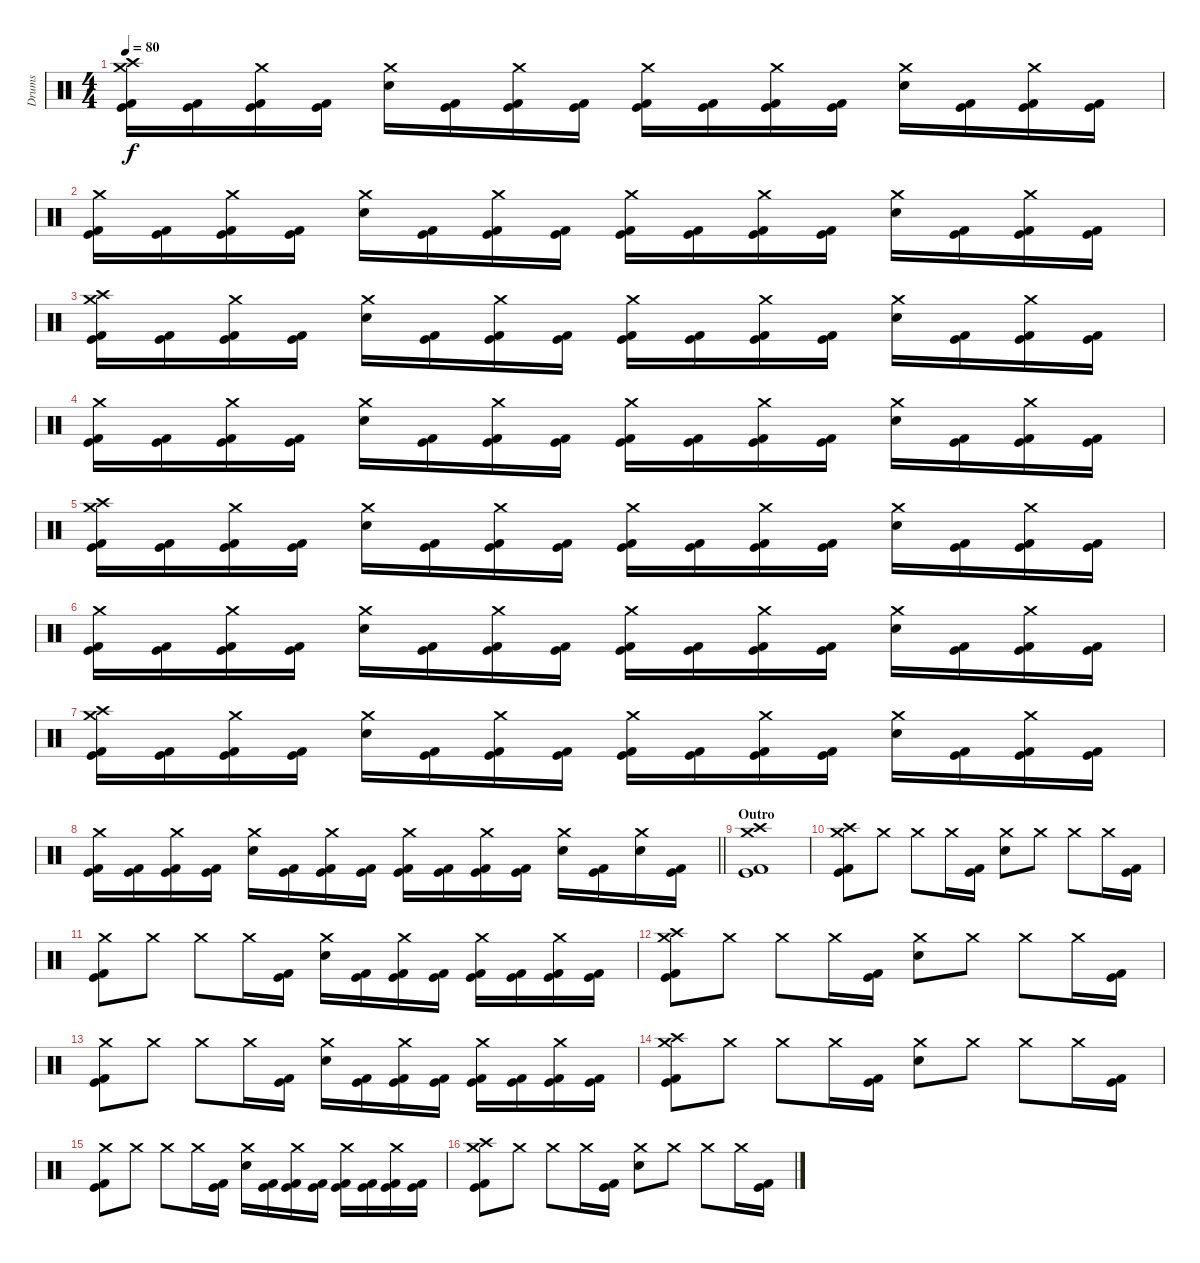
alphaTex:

\track ("Drums" "Drums") {instrument percussion}
\staff {score}
\articulation defaults
\ts (4 4)
\tempo 80
\clef neutral
\ks c
("Crash medium (hit)" "Crash high (hit)" "Kick (hit) 2" "Kick (hit)").16{dy f} ("Kick (hit) 2" "Kick (hit)").16 ("Crash medium (hit)" "Kick (hit) 2" "Kick (hit)").16 ("Kick (hit) 2" "Kick (hit)").16 ("Crash medium (hit)" "Electric Snare (hit)").16 ("Kick (hit) 2" "Kick (hit)").16 ("Crash medium (hit)" "Kick (hit) 2" "Kick (hit)").16 ("Kick (hit) 2" "Kick (hit)").16 ("Crash medium (hit)" "Kick (hit) 2" "Kick (hit)").16 ("Kick (hit) 2" "Kick (hit)").16 ("Crash medium (hit)" "Kick (hit) 2" "Kick (hit)").16 ("Kick (hit) 2" "Kick (hit)").16 ("Crash medium (hit)" "Electric Snare (hit)").16 ("Kick (hit) 2" "Kick (hit)").16 ("Crash medium (hit)" "Kick (hit) 2" "Kick (hit)").16 ("Kick (hit) 2" "Kick (hit)").16 |
("Crash medium (hit)" "Kick (hit) 2" "Kick (hit)").16 ("Kick (hit) 2" "Kick (hit)").16 ("Crash medium (hit)" "Kick (hit) 2" "Kick (hit)").16 ("Kick (hit) 2" "Kick (hit)").16 ("Crash medium (hit)" "Electric Snare (hit)").16 ("Kick (hit) 2" "Kick (hit)").16 ("Crash medium (hit)" "Kick (hit) 2" "Kick (hit)").16 ("Kick (hit) 2" "Kick (hit)").16 ("Crash medium (hit)" "Kick (hit) 2" "Kick (hit)").16 ("Kick (hit) 2" "Kick (hit)").16 ("Crash medium (hit)" "Kick (hit) 2" "Kick (hit)").16 ("Kick (hit) 2" "Kick (hit)").16 ("Crash medium (hit)" "Electric Snare (hit)").16 ("Kick (hit) 2" "Kick (hit)").16 ("Crash medium (hit)" "Kick (hit) 2" "Kick (hit)").16 ("Kick (hit) 2" "Kick (hit)").16 |
("Crash medium (hit)" "Crash high (hit)" "Kick (hit) 2" "Kick (hit)").16 ("Kick (hit) 2" "Kick (hit)").16 ("Crash medium (hit)" "Kick (hit) 2" "Kick (hit)").16 ("Kick (hit) 2" "Kick (hit)").16 ("Crash medium (hit)" "Electric Snare (hit)").16 ("Kick (hit) 2" "Kick (hit)").16 ("Crash medium (hit)" "Kick (hit) 2" "Kick (hit)").16 ("Kick (hit) 2" "Kick (hit)").16 ("Crash medium (hit)" "Kick (hit) 2" "Kick (hit)").16 ("Kick (hit) 2" "Kick (hit)").16 ("Crash medium (hit)" "Kick (hit) 2" "Kick (hit)").16 ("Kick (hit) 2" "Kick (hit)").16 ("Crash medium (hit)" "Electric Snare (hit)").16 ("Kick (hit) 2" "Kick (hit)").16 ("Crash medium (hit)" "Kick (hit) 2" "Kick (hit)").16 ("Kick (hit) 2" "Kick (hit)").16 |
("Crash medium (hit)" "Kick (hit) 2" "Kick (hit)").16 ("Kick (hit) 2" "Kick (hit)").16 ("Crash medium (hit)" "Kick (hit) 2" "Kick (hit)").16 ("Kick (hit) 2" "Kick (hit)").16 ("Crash medium (hit)" "Electric Snare (hit)").16 ("Kick (hit) 2" "Kick (hit)").16 ("Crash medium (hit)" "Kick (hit) 2" "Kick (hit)").16 ("Kick (hit) 2" "Kick (hit)").16 ("Crash medium (hit)" "Kick (hit) 2" "Kick (hit)").16 ("Kick (hit) 2" "Kick (hit)").16 ("Crash medium (hit)" "Kick (hit) 2" "Kick (hit)").16 ("Kick (hit) 2" "Kick (hit)").16 ("Crash medium (hit)" "Electric Snare (hit)").16 ("Kick (hit) 2" "Kick (hit)").16 ("Crash medium (hit)" "Kick (hit) 2" "Kick (hit)").16 ("Kick (hit) 2" "Kick (hit)").16 |
("Crash medium (hit)" "Crash high (hit)" "Kick (hit) 2" "Kick (hit)").16 ("Kick (hit) 2" "Kick (hit)").16 ("Crash medium (hit)" "Kick (hit) 2" "Kick (hit)").16 ("Kick (hit) 2" "Kick (hit)").16 ("Crash medium (hit)" "Electric Snare (hit)").16 ("Kick (hit) 2" "Kick (hit)").16 ("Crash medium (hit)" "Kick (hit) 2" "Kick (hit)").16 ("Kick (hit) 2" "Kick (hit)").16 ("Crash medium (hit)" "Kick (hit) 2" "Kick (hit)").16 ("Kick (hit) 2" "Kick (hit)").16 ("Crash medium (hit)" "Kick (hit) 2" "Kick (hit)").16 ("Kick (hit) 2" "Kick (hit)").16 ("Crash medium (hit)" "Electric Snare (hit)").16 ("Kick (hit) 2" "Kick (hit)").16 ("Crash medium (hit)" "Kick (hit) 2" "Kick (hit)").16 ("Kick (hit) 2" "Kick (hit)").16 |
("Crash medium (hit)" "Kick (hit) 2" "Kick (hit)").16 ("Kick (hit) 2" "Kick (hit)").16 ("Crash medium (hit)" "Kick (hit) 2" "Kick (hit)").16 ("Kick (hit) 2" "Kick (hit)").16 ("Crash medium (hit)" "Electric Snare (hit)").16 ("Kick (hit) 2" "Kick (hit)").16 ("Crash medium (hit)" "Kick (hit) 2" "Kick (hit)").16 ("Kick (hit) 2" "Kick (hit)").16 ("Crash medium (hit)" "Kick (hit) 2" "Kick (hit)").16 ("Kick (hit) 2" "Kick (hit)").16 ("Crash medium (hit)" "Kick (hit) 2" "Kick (hit)").16 ("Kick (hit) 2" "Kick (hit)").16 ("Crash medium (hit)" "Electric Snare (hit)").16 ("Kick (hit) 2" "Kick (hit)").16 ("Crash medium (hit)" "Kick (hit) 2" "Kick (hit)").16 ("Kick (hit) 2" "Kick (hit)").16 |
("Crash medium (hit)" "Crash high (hit)" "Kick (hit) 2" "Kick (hit)").16 ("Kick (hit) 2" "Kick (hit)").16 ("Crash medium (hit)" "Kick (hit) 2" "Kick (hit)").16 ("Kick (hit) 2" "Kick (hit)").16 ("Crash medium (hit)" "Electric Snare (hit)").16 ("Kick (hit) 2" "Kick (hit)").16 ("Crash medium (hit)" "Kick (hit) 2" "Kick (hit)").16 ("Kick (hit) 2" "Kick (hit)").16 ("Crash medium (hit)" "Kick (hit) 2" "Kick (hit)").16 ("Kick (hit) 2" "Kick (hit)").16 ("Crash medium (hit)" "Kick (hit) 2" "Kick (hit)").16 ("Kick (hit) 2" "Kick (hit)").16 ("Crash medium (hit)" "Electric Snare (hit)").16 ("Kick (hit) 2" "Kick (hit)").16 ("Crash medium (hit)" "Kick (hit) 2" "Kick (hit)").16 ("Kick (hit) 2" "Kick (hit)").16 |
\barLineRight lightlight
("Crash medium (hit)" "Kick (hit) 2" "Kick (hit)").16 ("Kick (hit) 2" "Kick (hit)").16 ("Crash medium (hit)" "Kick (hit) 2" "Kick (hit)").16 ("Kick (hit) 2" "Kick (hit)").16 ("Crash medium (hit)" "Electric Snare (hit)").16 ("Kick (hit) 2" "Kick (hit)").16 ("Crash medium (hit)" "Kick (hit) 2" "Kick (hit)").16 ("Kick (hit) 2" "Kick (hit)").16 ("Crash medium (hit)" "Kick (hit) 2" "Kick (hit)").16 ("Kick (hit) 2" "Kick (hit)").16 ("Crash medium (hit)" "Kick (hit) 2" "Kick (hit)").16 ("Kick (hit) 2" "Kick (hit)").16 ("Crash medium (hit)" "Electric Snare (hit)").16 ("Kick (hit) 2" "Kick (hit)").16 ("Crash medium (hit)" "Electric Snare (hit)").16 ("Kick (hit) 2" "Kick (hit)").16 |
\section ("" "Outro")
("Crash medium (hit)" "Crash high (hit)" "Kick (hit) 2" "Kick (hit)").1 |
("Crash medium (hit)" "Crash high (hit)" "Kick (hit) 2" "Kick (hit)").8 "Crash medium (hit)".8 "Crash medium (hit)".8 "Crash medium (hit)".16 ("Kick (hit) 2" "Kick (hit)").16 ("Crash medium (hit)" "Electric Snare (hit)").8 "Crash medium (hit)".8 "Crash medium (hit)".8 "Crash medium (hit)".16 ("Kick (hit) 2" "Kick (hit)").16 |
("Crash medium (hit)" "Kick (hit) 2" "Kick (hit)").8 "Crash medium (hit)".8 "Crash medium (hit)".8 "Crash medium (hit)".16 ("Kick (hit) 2" "Kick (hit)").16 ("Crash medium (hit)" "Electric Snare (hit)").16 ("Kick (hit) 2" "Kick (hit)").16 ("Crash medium (hit)" "Kick (hit) 2" "Kick (hit)").16 ("Kick (hit) 2" "Kick (hit)").16 ("Crash medium (hit)" "Kick (hit) 2" "Kick (hit)").16 ("Kick (hit) 2" "Kick (hit)").16 ("Crash medium (hit)" "Kick (hit) 2" "Kick (hit)").16 ("Kick (hit) 2" "Kick (hit)").16 |
("Crash medium (hit)" "Crash high (hit)" "Kick (hit) 2" "Kick (hit)").8 "Crash medium (hit)".8 "Crash medium (hit)".8 "Crash medium (hit)".16 ("Kick (hit) 2" "Kick (hit)").16 ("Crash medium (hit)" "Electric Snare (hit)").8 "Crash medium (hit)".8 "Crash medium (hit)".8 "Crash medium (hit)".16 ("Kick (hit) 2" "Kick (hit)").16 |
("Crash medium (hit)" "Kick (hit) 2" "Kick (hit)").8 "Crash medium (hit)".8 "Crash medium (hit)".8 "Crash medium (hit)".16 ("Kick (hit) 2" "Kick (hit)").16 ("Crash medium (hit)" "Electric Snare (hit)").16 ("Kick (hit) 2" "Kick (hit)").16 ("Crash medium (hit)" "Kick (hit) 2" "Kick (hit)").16 ("Kick (hit) 2" "Kick (hit)").16 ("Crash medium (hit)" "Kick (hit) 2" "Kick (hit)").16 ("Kick (hit) 2" "Kick (hit)").16 ("Crash medium (hit)" "Kick (hit) 2" "Kick (hit)").16 ("Kick (hit) 2" "Kick (hit)").16 |
("Crash medium (hit)" "Crash high (hit)" "Kick (hit) 2" "Kick (hit)").8 "Crash medium (hit)".8 "Crash medium (hit)".8 "Crash medium (hit)".16 ("Kick (hit) 2" "Kick (hit)").16 ("Crash medium (hit)" "Electric Snare (hit)").8 "Crash medium (hit)".8 "Crash medium (hit)".8 "Crash medium (hit)".16 ("Kick (hit) 2" "Kick (hit)").16 |
("Crash medium (hit)" "Kick (hit) 2" "Kick (hit)").8 "Crash medium (hit)".8 "Crash medium (hit)".8 "Crash medium (hit)".16 ("Kick (hit) 2" "Kick (hit)").16 ("Crash medium (hit)" "Electric Snare (hit)").16 ("Kick (hit) 2" "Kick (hit)").16 ("Crash medium (hit)" "Kick (hit) 2" "Kick (hit)").16 ("Kick (hit) 2" "Kick (hit)").16 ("Crash medium (hit)" "Kick (hit) 2" "Kick (hit)").16 ("Kick (hit) 2" "Kick (hit)").16 ("Crash medium (hit)" "Kick (hit) 2" "Kick (hit)").16 ("Kick (hit) 2" "Kick (hit)").16 |
("Crash medium (hit)" "Crash high (hit)" "Kick (hit) 2" "Kick (hit)").8 "Crash medium (hit)".8 "Crash medium (hit)".8 "Crash medium (hit)".16 ("Kick (hit) 2" "Kick (hit)").16 ("Crash medium (hit)" "Electric Snare (hit)").8 "Crash medium (hit)".8 "Crash medium (hit)".8 "Crash medium (hit)".16 ("Kick (hit) 2" "Kick (hit)").16
